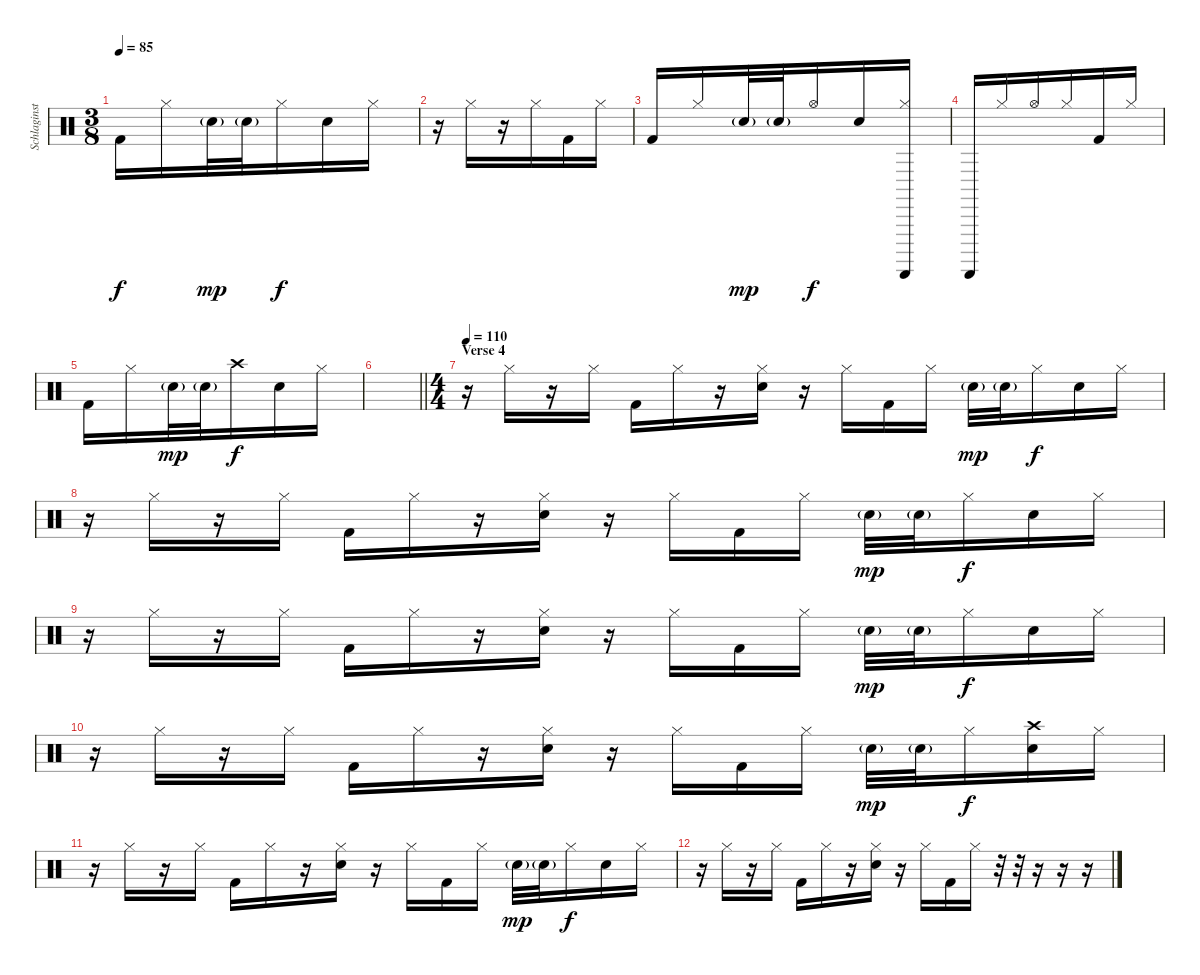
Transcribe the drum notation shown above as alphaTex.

\track ("Schlaginstrumente - Auswahl" "Schlaginst") {instrument percussion}
\staff {score}
\articulation defaults
\ts (3 8)
\tempo 85
\clef neutral
\ks c "Kick (hit) 2".16{dy f} "Hi-Hat (closed)".16 "Electric Snare (hit)"{g}.32{dy mp} "Electric Snare (hit)"{g}.32 "Hi-Hat (closed)".16{dy f} "Electric Snare (hit)".16 "Hi-Hat (closed)".16
|
r.16 "Hi-Hat (closed)".16 r.16 "Hi-Hat (closed)".16 "Kick (hit) 2".16 "Hi-Hat (closed)".16 |
"Kick (hit) 2".16 "Hi-Hat (closed)".16 "Electric Snare (hit)"{g}.32{dy mp} "Electric Snare (hit)"{g}.32 "Hi-Hat (open)".16{dy f} "Electric Snare (hit)".16 ("Hi-Hat (closed)" "Guiro (scrap-return)").16 |
"Guiro (scrap-return)".16 "Hi-Hat (closed)".16 "Hi-Hat (open)".16 "Hi-Hat (closed)".16 "Kick (hit) 2".16 "Hi-Hat (closed)".16 |
"Kick (hit) 2".16 "Hi-Hat (closed)".16 "Electric Snare (hit)"{g}.32{dy mp} "Electric Snare (hit)"{g}.32 "Crash high (hit)".16{dy f} "Electric Snare (hit)".16 "Hi-Hat (closed)".16 |
\barLineRight lightlight
|
\ts (4 4)
\section ("" "Verse 4")
\tempo 110
r.16 "Hi-Hat (closed)".16 r.16 "Hi-Hat (closed)".16 "Kick (hit) 2".16 "Hi-Hat (closed)".16 r.16 ("Hi-Hat (closed)" "Electric Snare (hit)").16 r.16 "Hi-Hat (closed)".16 "Kick (hit) 2".16 "Hi-Hat (closed)".16 "Electric Snare (hit)"{g}.32{dy mp} "Electric Snare (hit)"{g}.32 "Hi-Hat (closed)".16{dy f} "Electric Snare (hit)".16 "Hi-Hat (closed)".16 |
r.16 "Hi-Hat (closed)".16 r.16 "Hi-Hat (closed)".16 "Kick (hit) 2".16 "Hi-Hat (closed)".16 r.16 ("Hi-Hat (closed)" "Electric Snare (hit)").16 r.16 "Hi-Hat (closed)".16 "Kick (hit) 2".16 "Hi-Hat (closed)".16 "Electric Snare (hit)"{g}.32{dy mp} "Electric Snare (hit)"{g}.32 "Hi-Hat (closed)".16{dy f} "Electric Snare (hit)".16 "Hi-Hat (closed)".16 |
r.16 "Hi-Hat (closed)".16 r.16 "Hi-Hat (closed)".16 "Kick (hit) 2".16 "Hi-Hat (closed)".16 r.16 ("Hi-Hat (closed)" "Electric Snare (hit)").16 r.16 "Hi-Hat (closed)".16 "Kick (hit) 2".16 "Hi-Hat (closed)".16 "Electric Snare (hit)"{g}.32{dy mp} "Electric Snare (hit)"{g}.32 "Hi-Hat (closed)".16{dy f} "Electric Snare (hit)".16 "Hi-Hat (closed)".16 |
r.16 "Hi-Hat (closed)".16 r.16 "Hi-Hat (closed)".16 "Kick (hit) 2".16 "Hi-Hat (closed)".16 r.16 ("Hi-Hat (closed)" "Electric Snare (hit)").16 r.16 "Hi-Hat (closed)".16 "Kick (hit) 2".16 "Hi-Hat (closed)".16 "Electric Snare (hit)"{g}.32{dy mp} "Electric Snare (hit)"{g}.32 "Hi-Hat (closed)".16{dy f} ("Crash high (hit)" "Electric Snare (hit)").16 "Hi-Hat (closed)".16 |
r.16 "Hi-Hat (closed)".16 r.16 "Hi-Hat (closed)".16 "Kick (hit) 2".16 "Hi-Hat (closed)".16 r.16 ("Hi-Hat (closed)" "Electric Snare (hit)").16 r.16 "Hi-Hat (closed)".16 "Kick (hit) 2".16 "Hi-Hat (closed)".16 "Electric Snare (hit)"{g}.32{dy mp} "Electric Snare (hit)"{g}.32 "Hi-Hat (closed)".16{dy f} "Electric Snare (hit)".16 "Hi-Hat (closed)".16 |
r.16 "Hi-Hat (closed)".16 r.16 "Hi-Hat (closed)".16 "Kick (hit) 2".16 "Hi-Hat (closed)".16 r.16 ("Hi-Hat (closed)" "Electric Snare (hit)").16 r.16 "Hi-Hat (closed)".16 "Kick (hit) 2".16 "Hi-Hat (closed)".16 r.32 r.32 r.16 r.16 r.16
